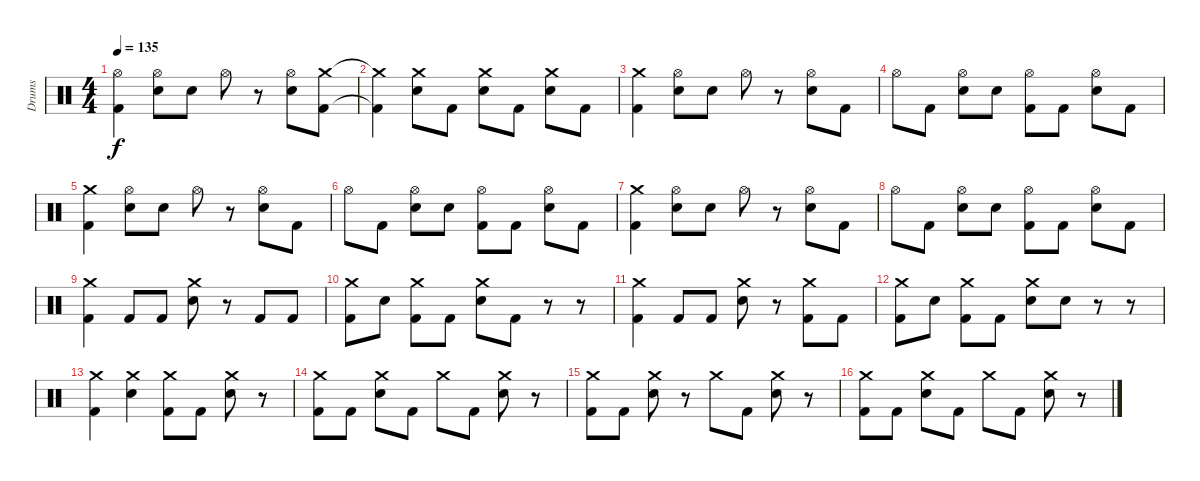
\track ("Drums" "Drums") {instrument percussion}
\staff {score}
\articulation defaults
\ts (4 4)
\tempo 135
\clef neutral
\ks c
("Hi-Hat (open)" "Kick (hit) 2").4{dy f} ("Hi-Hat (open)" "Snare (hit) 2").8 "Snare (hit) 2".8 "Hi-Hat (open)".8 r.8 ("Hi-Hat (open)" "Snare (hit) 2").8 ("Crash medium (hit)" "Kick (hit) 2").8 |
("Crash medium (hit)"{t} "Kick (hit) 2"{t}).4 ("Crash medium (hit)" "Snare (hit) 2").8 "Kick (hit) 2".8 ("Crash medium (hit)" "Snare (hit) 2").8 "Kick (hit) 2".8 ("Crash medium (hit)" "Snare (hit) 2").8 "Kick (hit) 2".8 |
("Crash medium (hit)" "Kick (hit) 2").4 ("Hi-Hat (open)" "Snare (hit) 2").8 "Snare (hit) 2".8 "Hi-Hat (open)".8 r.8 ("Hi-Hat (open)" "Snare (hit) 2").8 "Kick (hit) 2".8 |
"Hi-Hat (open)".8 "Kick (hit) 2".8 ("Hi-Hat (open)" "Snare (hit) 2").8 "Snare (hit) 2".8 ("Hi-Hat (open)" "Kick (hit) 2").8 "Kick (hit) 2".8 ("Hi-Hat (open)" "Snare (hit) 2").8 "Kick (hit) 2".8 |
("Crash medium (hit)" "Kick (hit) 2").4 ("Hi-Hat (open)" "Snare (hit) 2").8 "Snare (hit) 2".8 "Hi-Hat (open)".8 r.8 ("Hi-Hat (open)" "Snare (hit) 2").8 "Kick (hit) 2".8 |
"Hi-Hat (open)".8 "Kick (hit) 2".8 ("Hi-Hat (open)" "Snare (hit) 2").8 "Snare (hit) 2".8 ("Hi-Hat (open)" "Kick (hit) 2").8 "Kick (hit) 2".8 ("Hi-Hat (open)" "Snare (hit) 2").8 "Kick (hit) 2".8 |
("Crash medium (hit)" "Kick (hit) 2").4 ("Hi-Hat (open)" "Snare (hit) 2").8 "Snare (hit) 2".8 "Hi-Hat (open)".8 r.8 ("Hi-Hat (open)" "Snare (hit) 2").8 "Kick (hit) 2".8 |
"Hi-Hat (open)".8 "Kick (hit) 2".8 ("Hi-Hat (open)" "Snare (hit) 2").8 "Snare (hit) 2".8 ("Hi-Hat (open)" "Kick (hit) 2").8 "Kick (hit) 2".8 ("Hi-Hat (open)" "Snare (hit) 2").8 "Kick (hit) 2".8 |
("Crash medium (hit)" "Kick (hit) 2").4 "Kick (hit) 2".8 "Kick (hit) 2".8 ("Crash medium (hit)" "Snare (hit) 2").8 r.8 "Kick (hit) 2".8 "Kick (hit) 2".8 |
("Crash medium (hit)" "Kick (hit) 2").8 "Snare (hit) 2".8 ("Crash medium (hit)" "Kick (hit) 2").8 "Kick (hit) 2".8 ("Crash medium (hit)" "Snare (hit) 2").8 "Kick (hit) 2".8 r.8 r.8 |
("Crash medium (hit)" "Kick (hit) 2").4 "Kick (hit) 2".8 "Kick (hit) 2".8 ("Crash medium (hit)" "Snare (hit) 2").8 r.8 ("Crash medium (hit)" "Kick (hit) 2").8 "Kick (hit) 2".8 |
("Crash medium (hit)" "Kick (hit) 2").8 "Snare (hit) 2".8 ("Crash medium (hit)" "Kick (hit) 2").8 "Kick (hit) 2".8 ("Crash medium (hit)" "Snare (hit) 2").8 "Snare (hit) 2".8 r.8 r.8 |
("Crash medium (hit)" "Kick (hit) 2").4 ("Crash medium (hit)" "Snare (hit) 2").4 ("Crash medium (hit)" "Kick (hit) 2").8 "Kick (hit) 2".8 ("Crash medium (hit)" "Snare (hit) 2").8 r.8 |
("Crash medium (hit)" "Kick (hit) 2").8 "Kick (hit) 2".8 ("Crash medium (hit)" "Snare (hit) 2").8 "Kick (hit) 2".8 "Crash medium (hit)".8 "Kick (hit) 2".8 ("Crash medium (hit)" "Snare (hit) 2").8 r.8 |
("Crash medium (hit)" "Kick (hit) 2").8 "Kick (hit) 2".8 ("Crash medium (hit)" "Snare (hit) 2").8 r.8 "Crash medium (hit)".8 "Kick (hit) 2".8 ("Crash medium (hit)" "Snare (hit) 2").8 r.8 |
("Crash medium (hit)" "Kick (hit) 2").8 "Kick (hit) 2".8 ("Crash medium (hit)" "Snare (hit) 2").8 "Kick (hit) 2".8 "Crash medium (hit)".8 "Kick (hit) 2".8 ("Crash medium (hit)" "Snare (hit) 2").8 r.8
